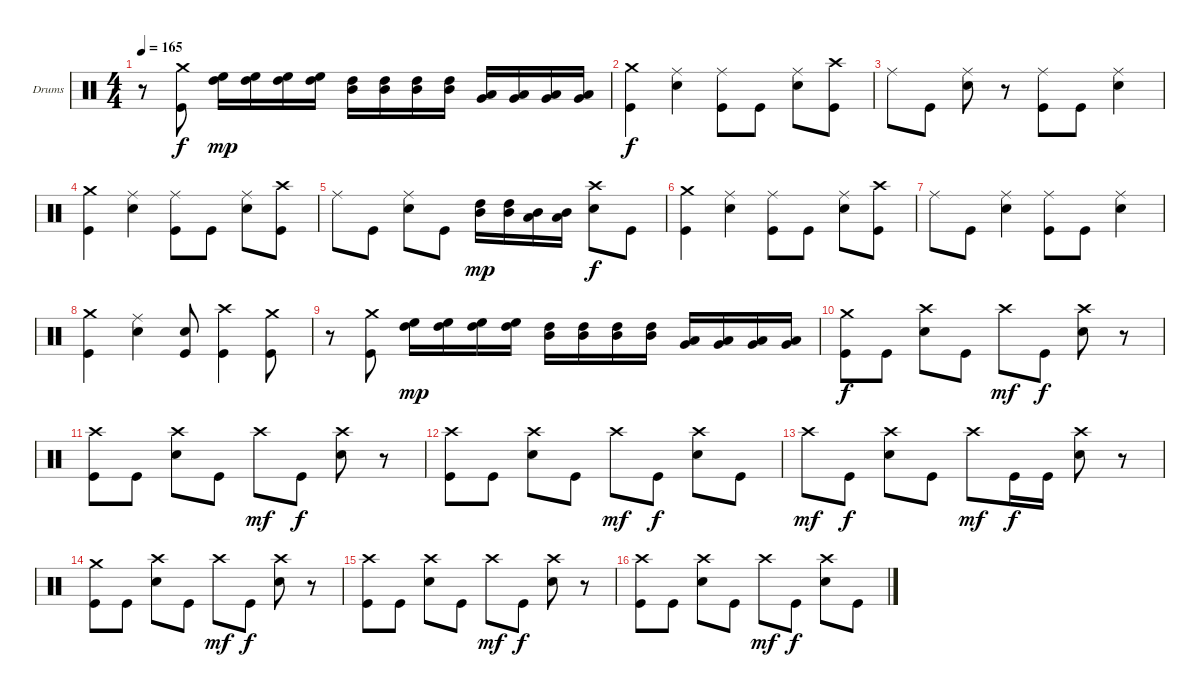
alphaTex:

\bracketExtendMode groupsimilarinstruments
\firstSystemTrackNameOrientation horizontal
\otherSystemsTrackNameOrientation horizontal
\track ("Drumkit" "Drums") {instrument percussion}
\staff {score}
\articulation defaults
\ts (4 4)
\tempo 165
\clef neutral
\ks c
r.8{dy f} ("Kick (hit)" "Crash medium (hit)").8 ("High Floor Tom (hit)" "High Tom (hit)").16{dy mp} ("High Floor Tom (hit)" "High Tom (hit)").16 ("High Floor Tom (hit)" "High Tom (hit)").16 ("High Floor Tom (hit)" "High Tom (hit)").16 ("High Tom (hit)" "Mid Tom (hit)").16 ("High Tom (hit)" "Mid Tom (hit)").16 ("High Tom (hit)" "Mid Tom (hit)").16 ("High Tom (hit)" "Mid Tom (hit)").16 ("Low Tom (hit)" "Very Low Tom (hit)").16 ("Low Tom (hit)" "Very Low Tom (hit)").16 ("Low Tom (hit)" "Very Low Tom (hit)").16 ("Low Tom (hit)" "Very Low Tom (hit)").16 |
("Kick (hit)" "Crash medium (hit)").4{dy f} ("Snare (hit) 2" "Ride (middle)").4 ("Kick (hit)" "Ride (middle)").8 "Kick (hit)".8 ("Snare (hit) 2" "Ride (middle)").8 ("Kick (hit)" "Crash high (hit)").8 |
"Ride (middle)".8 "Kick (hit)".8 ("Snare (hit) 2" "Ride (middle)").8 r.8 ("Kick (hit)" "Ride (middle)").8 "Kick (hit)".8 ("Snare (hit) 2" "Ride (middle)").4 |
("Kick (hit)" "Crash medium (hit)").4 ("Snare (hit) 2" "Ride (middle)").4 ("Kick (hit)" "Ride (middle)").8 "Kick (hit)".8 ("Snare (hit) 2" "Ride (middle)").8 ("Kick (hit)" "Crash high (hit)").8 |
"Ride (middle)".8 "Kick (hit)".8 ("Snare (hit) 2" "Ride (middle)").8 "Kick (hit)".8 ("High Tom (hit)" "Mid Tom (hit)").16{dy mp} ("High Tom (hit)" "Mid Tom (hit)").16 ("Mid Tom (hit)" "Low Tom (hit)").16 ("Mid Tom (hit)" "Low Tom (hit)").16 ("Snare (hit) 2" "Crash high (hit)").8{dy f} "Kick (hit)".8 |
("Kick (hit)" "Crash medium (hit)").4 ("Snare (hit) 2" "Ride (middle)").4 ("Kick (hit)" "Ride (middle)").8 "Kick (hit)".8 ("Snare (hit) 2" "Ride (middle)").8 ("Kick (hit)" "Crash high (hit)").8 |
"Ride (middle)".8 "Kick (hit)".8 ("Snare (hit) 2" "Ride (middle)").4 ("Kick (hit)" "Ride (middle)").8 "Kick (hit)".8 ("Snare (hit) 2" "Ride (middle)").4 |
("Kick (hit)" "Crash medium (hit)").4 ("Snare (hit) 2" "Ride (middle)").4 ("Kick (hit)" "Snare (hit) 2").8 ("Kick (hit)" "Crash high (hit)").4 ("Kick (hit)" "Crash medium (hit)").8 |
r.8 ("Kick (hit)" "Crash medium (hit)").8 ("High Floor Tom (hit)" "High Tom (hit)").16{dy mp} ("High Floor Tom (hit)" "High Tom (hit)").16 ("High Floor Tom (hit)" "High Tom (hit)").16 ("High Floor Tom (hit)" "High Tom (hit)").16 ("High Tom (hit)" "Mid Tom (hit)").16 ("High Tom (hit)" "Mid Tom (hit)").16 ("High Tom (hit)" "Mid Tom (hit)").16 ("High Tom (hit)" "Mid Tom (hit)").16 ("Low Tom (hit)" "Very Low Tom (hit)").16 ("Low Tom (hit)" "Very Low Tom (hit)").16 ("Low Tom (hit)" "Very Low Tom (hit)").16 ("Low Tom (hit)" "Very Low Tom (hit)").16 |
("Kick (hit)" "Crash medium (hit)").8{dy f} "Kick (hit)".8 ("Snare (hit) 2" "Crash high (hit)").8 "Kick (hit)".8 "Crash high (hit)".8{dy mf} "Kick (hit)".8{dy f} ("Snare (hit) 2" "Crash high (hit)").8 r.8 |
("Kick (hit)" "Crash high (hit)").8 "Kick (hit)".8 ("Snare (hit) 2" "Crash high (hit)").8 "Kick (hit)".8 "Crash high (hit)".8{dy mf} "Kick (hit)".8{dy f} ("Snare (hit) 2" "Crash high (hit)").8 r.8 |
("Kick (hit)" "Crash high (hit)").8 "Kick (hit)".8 ("Snare (hit) 2" "Crash high (hit)").8 "Kick (hit)".8 "Crash high (hit)".8{dy mf} "Kick (hit)".8{dy f} ("Snare (hit) 2" "Crash high (hit)").8 "Kick (hit)".8 |
"Crash high (hit)".8{dy mf} "Kick (hit)".8{dy f} ("Snare (hit) 2" "Crash high (hit)").8 "Kick (hit)".8 "Crash high (hit)".8{dy mf} "Kick (hit)".16{dy f} "Kick (hit)".16 ("Snare (hit) 2" "Crash high (hit)").8 r.8 |
("Kick (hit)" "Crash medium (hit)").8 "Kick (hit)".8 ("Snare (hit) 2" "Crash high (hit)").8 "Kick (hit)".8 "Crash high (hit)".8{dy mf} "Kick (hit)".8{dy f} ("Snare (hit) 2" "Crash high (hit)").8 r.8 |
("Kick (hit)" "Crash high (hit)").8 "Kick (hit)".8 ("Snare (hit) 2" "Crash high (hit)").8 "Kick (hit)".8 "Crash high (hit)".8{dy mf} "Kick (hit)".8{dy f} ("Snare (hit) 2" "Crash high (hit)").8 r.8 |
("Kick (hit)" "Crash high (hit)").8 "Kick (hit)".8 ("Snare (hit) 2" "Crash high (hit)").8 "Kick (hit)".8 "Crash high (hit)".8{dy mf} "Kick (hit)".8{dy f} ("Snare (hit) 2" "Crash high (hit)").8 "Kick (hit)".8
